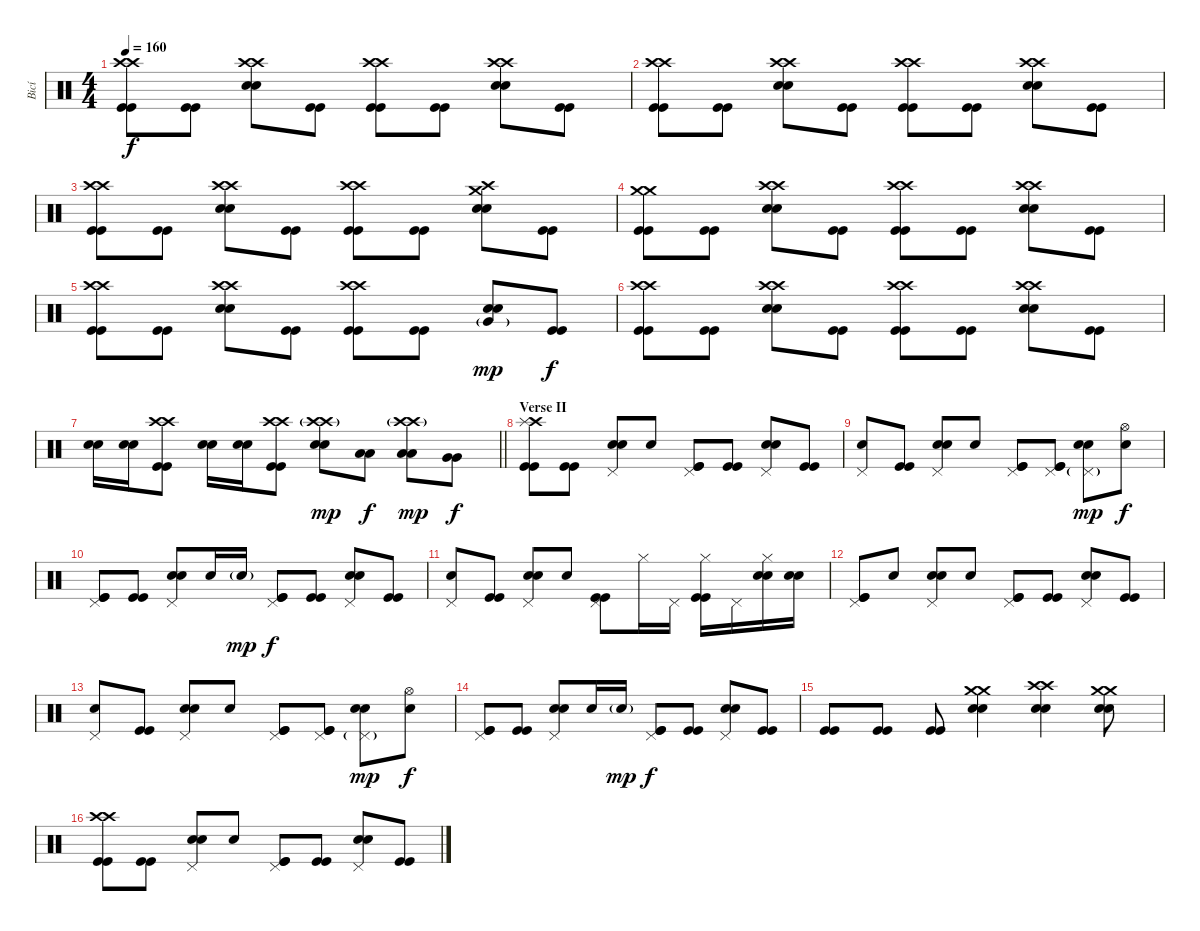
\track ("Bicí" "Bicí") {instrument percussion}
\staff {score}
\articulation defaults
\ts (4 4)
\tempo 160
\clef neutral
\ks c
("Crash high (hit)" "Crash high (hit)" "Kick (hit)" "Kick (hit)").8{dy f} ("Kick (hit)" "Kick (hit)").8 ("Crash high (hit)" "Crash high (hit)" "Electric Snare (hit)" "Electric Snare (hit)").8 ("Kick (hit)" "Kick (hit)").8 ("Crash high (hit)" "Crash high (hit)" "Kick (hit)" "Kick (hit)").8 ("Kick (hit)" "Kick (hit)").8 ("Crash high (hit)" "Crash high (hit)" "Electric Snare (hit)" "Electric Snare (hit)").8 ("Kick (hit)" "Kick (hit)").8 |
("Crash high (hit)" "Crash high (hit)" "Kick (hit)" "Kick (hit)").8 ("Kick (hit)" "Kick (hit)").8 ("Crash high (hit)" "Crash high (hit)" "Electric Snare (hit)" "Electric Snare (hit)").8 ("Kick (hit)" "Kick (hit)").8 ("Crash high (hit)" "Crash high (hit)" "Kick (hit)" "Kick (hit)").8 ("Kick (hit)" "Kick (hit)").8 ("Crash high (hit)" "Crash high (hit)" "Electric Snare (hit)" "Electric Snare (hit)").8 ("Kick (hit)" "Kick (hit)").8 |
("Crash high (hit)" "Crash high (hit)" "Kick (hit)" "Kick (hit)").8 ("Kick (hit)" "Kick (hit)").8 ("Crash high (hit)" "Crash high (hit)" "Electric Snare (hit)" "Electric Snare (hit)").8 ("Kick (hit)" "Kick (hit)").8 ("Crash high (hit)" "Crash high (hit)" "Kick (hit)" "Kick (hit)").8 ("Kick (hit)" "Kick (hit)").8 ("Crash medium (hit)" "Crash high (hit)" "Electric Snare (hit)" "Electric Snare (hit)").8 ("Kick (hit)" "Kick (hit)").8 |
("Crash medium (hit)" "Crash medium (hit)" "Kick (hit)" "Kick (hit)").8 ("Kick (hit)" "Kick (hit)").8 ("Crash high (hit)" "Crash high (hit)" "Electric Snare (hit)" "Electric Snare (hit)").8 ("Kick (hit)" "Kick (hit)").8 ("Crash high (hit)" "Crash high (hit)" "Kick (hit)" "Kick (hit)").8 ("Kick (hit)" "Kick (hit)").8 ("Crash high (hit)" "Crash high (hit)" "Electric Snare (hit)" "Electric Snare (hit)").8 ("Kick (hit)" "Kick (hit)").8 |
("Crash high (hit)" "Crash high (hit)" "Kick (hit)" "Kick (hit)").8 ("Kick (hit)" "Kick (hit)").8 ("Crash high (hit)" "Crash high (hit)" "Electric Snare (hit)" "Electric Snare (hit)").8 ("Kick (hit)" "Kick (hit)").8 ("Crash high (hit)" "Crash high (hit)" "Kick (hit)" "Kick (hit)").8 ("Kick (hit)" "Kick (hit)").8 ("Very Low Tom (hit)"{g} "Electric Snare (hit)" "Electric Snare (hit)").8{dy mp} ("Kick (hit)" "Kick (hit)").8{dy f} |
("Crash high (hit)" "Crash high (hit)" "Kick (hit)" "Kick (hit)").8 ("Kick (hit)" "Kick (hit)").8 ("Crash high (hit)" "Crash high (hit)" "Electric Snare (hit)" "Electric Snare (hit)").8 ("Kick (hit)" "Kick (hit)").8 ("Crash high (hit)" "Crash high (hit)" "Kick (hit)" "Kick (hit)").8 ("Kick (hit)" "Kick (hit)").8 ("Crash high (hit)" "Crash high (hit)" "Electric Snare (hit)" "Electric Snare (hit)").8 ("Kick (hit)" "Kick (hit)").8 |
\barLineRight lightlight
("Electric Snare (hit)" "Electric Snare (hit)").16 ("Electric Snare (hit)" "Electric Snare (hit)").16 ("Crash high (hit)" "Crash high (hit)" "Kick (hit)" "Kick (hit)").8 ("Electric Snare (hit)" "Electric Snare (hit)").16 ("Electric Snare (hit)" "Electric Snare (hit)").16 ("Crash high (hit)" "Crash high (hit)" "Kick (hit)" "Kick (hit)").8 ("Crash high (hit)" "Crash high (hit)"{g} "Electric Snare (hit)" "Electric Snare (hit)").8{dy mp} ("Low Tom (hit)" "Low Tom (hit)").8{dy f} ("Crash high (hit)" "Crash high (hit)"{g} "Low Tom (hit)" "Low Tom (hit)").8{dy mp} ("Very Low Tom (hit)" "Very Low Tom (hit)").8{dy f} |
\section ("" "Verse II")
("Crash high (hit)" "Splash (hit)" "Kick (hit)" "Kick (hit)").8 ("Kick (hit)" "Kick (hit)").8 ("Pedal Hi-Hat (hit)" "Electric Snare (hit)" "Electric Snare (hit)").8 "Snare (hit)".8 ("Pedal Hi-Hat (hit)" "Kick (hit)" "Kick (hit)").8 ("Kick (hit)" "Kick (hit)").8 ("Pedal Hi-Hat (hit)" "Electric Snare (hit)" "Electric Snare (hit)").8 ("Kick (hit)" "Kick (hit)").8 |
("Pedal Hi-Hat (hit)" "Snare (hit)").8 ("Kick (hit)" "Kick (hit)").8 ("Pedal Hi-Hat (hit)" "Electric Snare (hit)" "Electric Snare (hit)").8 "Snare (hit)".8 ("Pedal Hi-Hat (hit)" "Kick (hit)" "Kick (hit)").8 ("Pedal Hi-Hat (hit)" "Kick (hit)" "Kick (hit)").8 ("Pedal Hi-Hat (hit)"{g} "Electric Snare (hit)" "Electric Snare (hit)").8{dy mp} ("Hi-Hat (open)" "Snare (hit)").8{dy f} |
("Pedal Hi-Hat (hit)" "Kick (hit)" "Kick (hit)").8 ("Kick (hit)" "Kick (hit)").8 ("Pedal Hi-Hat (hit)" "Electric Snare (hit)" "Electric Snare (hit)").8 "Snare (hit)".16 "Electric Snare (hit)"{g}.16{dy mp} ("Pedal Hi-Hat (hit)" "Kick (hit)" "Kick (hit)").8{dy f} ("Kick (hit)" "Kick (hit)").8 ("Pedal Hi-Hat (hit)" "Electric Snare (hit)" "Electric Snare (hit)").8 ("Kick (hit)" "Kick (hit)").8 |
("Pedal Hi-Hat (hit)" "Snare (hit)").8 ("Kick (hit)" "Kick (hit)").8 ("Pedal Hi-Hat (hit)" "Electric Snare (hit)" "Electric Snare (hit)").8 "Snare (hit)".8 ("Pedal Hi-Hat (hit)" "Kick (hit)" "Kick (hit)").8 "Hi-Hat (closed)".16 "Pedal Hi-Hat (hit)".16 ("Hi-Hat (closed)" "Kick (hit)" "Kick (hit)").16 "Pedal Hi-Hat (hit)".16 ("Hi-Hat (closed)" "Electric Snare (hit)" "Electric Snare (hit)").16 ("Electric Snare (hit)" "Electric Snare (hit)").16 |
("Pedal Hi-Hat (hit)" "Kick (hit)" "Kick (hit)").8 "Snare (hit)".8 ("Pedal Hi-Hat (hit)" "Electric Snare (hit)" "Electric Snare (hit)").8 "Snare (hit)".8 ("Pedal Hi-Hat (hit)" "Kick (hit)" "Kick (hit)").8 ("Kick (hit)" "Kick (hit)").8 ("Pedal Hi-Hat (hit)" "Electric Snare (hit)" "Electric Snare (hit)").8 ("Kick (hit)" "Kick (hit)").8 |
("Pedal Hi-Hat (hit)" "Snare (hit)").8 ("Kick (hit)" "Kick (hit)").8 ("Pedal Hi-Hat (hit)" "Electric Snare (hit)" "Electric Snare (hit)").8 "Snare (hit)".8 ("Pedal Hi-Hat (hit)" "Kick (hit)" "Kick (hit)").8 ("Pedal Hi-Hat (hit)" "Kick (hit)" "Kick (hit)").8 ("Pedal Hi-Hat (hit)"{g} "Electric Snare (hit)" "Electric Snare (hit)").8{dy mp} ("Hi-Hat (open)" "Snare (hit)").8{dy f} |
("Pedal Hi-Hat (hit)" "Kick (hit)" "Kick (hit)").8 ("Kick (hit)" "Kick (hit)").8 ("Pedal Hi-Hat (hit)" "Electric Snare (hit)" "Electric Snare (hit)").8 "Snare (hit)".16 "Electric Snare (hit)"{g}.16{dy mp} ("Pedal Hi-Hat (hit)" "Kick (hit)" "Kick (hit)").8{dy f} ("Kick (hit)" "Kick (hit)").8 ("Pedal Hi-Hat (hit)" "Electric Snare (hit)" "Electric Snare (hit)").8 ("Kick (hit)" "Kick (hit)").8 |
("Kick (hit)" "Kick (hit)").8 ("Kick (hit)" "Kick (hit)").8 ("Kick (hit)" "Kick (hit)").8 ("Crash medium (hit)" "Crash medium (hit)" "Electric Snare (hit)" "Electric Snare (hit)").4 ("Crash high (hit)" "Crash high (hit)" "Electric Snare (hit)" "Electric Snare (hit)").4 ("Crash medium (hit)" "Crash medium (hit)" "Electric Snare (hit)" "Electric Snare (hit)").8 |
("Crash high (hit)" "Crash high (hit)" "Kick (hit)" "Kick (hit)").8 ("Kick (hit)" "Kick (hit)").8 ("Pedal Hi-Hat (hit)" "Electric Snare (hit)" "Electric Snare (hit)").8 "Snare (hit)".8 ("Pedal Hi-Hat (hit)" "Kick (hit)" "Kick (hit)").8 ("Kick (hit)" "Kick (hit)").8 ("Pedal Hi-Hat (hit)" "Electric Snare (hit)" "Electric Snare (hit)").8 ("Kick (hit)" "Kick (hit)").8
